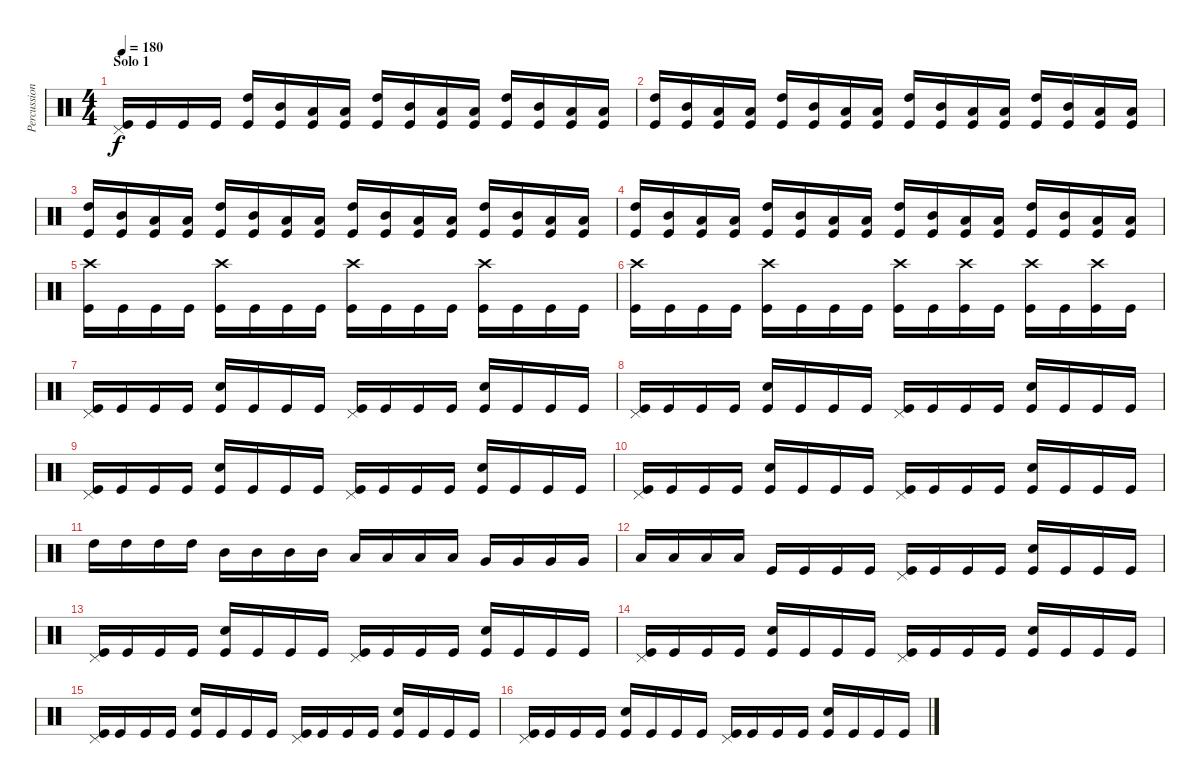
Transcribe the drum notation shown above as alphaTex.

\track ("Percussion" "Percussion") {instrument percussion}
\staff {score}
\articulation defaults
\ts (4 4)
\section ("" "Solo 1")
\tempo 180
\clef neutral
\ks c
("Pedal Hi-Hat (hit)" "Kick (hit)").16{dy f} "Kick (hit)".16 "Kick (hit)".16 "Kick (hit)".16 ("High Tom (hit)" "Kick (hit)").16 ("Mid Tom (hit)" "Kick (hit)").16 ("Low Tom (hit)" "Kick (hit)").16 ("Low Floor Tom (hit)" "Kick (hit)").16 ("High Tom (hit)" "Kick (hit)").16 ("Mid Tom (hit)" "Kick (hit)").16 ("Low Tom (hit)" "Kick (hit)").16 ("Low Floor Tom (hit)" "Kick (hit)").16 ("High Tom (hit)" "Kick (hit)").16 ("Mid Tom (hit)" "Kick (hit)").16 ("Low Tom (hit)" "Kick (hit)").16 ("Low Floor Tom (hit)" "Kick (hit)").16 |
("High Tom (hit)" "Kick (hit)").16 ("Mid Tom (hit)" "Kick (hit)").16 ("Low Tom (hit)" "Kick (hit)").16 ("Low Floor Tom (hit)" "Kick (hit)").16 ("High Tom (hit)" "Kick (hit)").16 ("Mid Tom (hit)" "Kick (hit)").16 ("Low Tom (hit)" "Kick (hit)").16 ("Low Floor Tom (hit)" "Kick (hit)").16 ("High Tom (hit)" "Kick (hit)").16 ("Mid Tom (hit)" "Kick (hit)").16 ("Low Tom (hit)" "Kick (hit)").16 ("Low Floor Tom (hit)" "Kick (hit)").16 ("High Tom (hit)" "Kick (hit)").16 ("Mid Tom (hit)" "Kick (hit)").16 ("Low Tom (hit)" "Kick (hit)").16 ("Low Floor Tom (hit)" "Kick (hit)").16 |
("High Tom (hit)" "Kick (hit)").16 ("Mid Tom (hit)" "Kick (hit)").16 ("Low Tom (hit)" "Kick (hit)").16 ("Low Floor Tom (hit)" "Kick (hit)").16 ("High Tom (hit)" "Kick (hit)").16 ("Mid Tom (hit)" "Kick (hit)").16 ("Low Tom (hit)" "Kick (hit)").16 ("Low Floor Tom (hit)" "Kick (hit)").16 ("High Tom (hit)" "Kick (hit)").16 ("Mid Tom (hit)" "Kick (hit)").16 ("Low Tom (hit)" "Kick (hit)").16 ("Low Floor Tom (hit)" "Kick (hit)").16 ("High Tom (hit)" "Kick (hit)").16 ("Mid Tom (hit)" "Kick (hit)").16 ("Low Tom (hit)" "Kick (hit)").16 ("Low Floor Tom (hit)" "Kick (hit)").16 |
("High Tom (hit)" "Kick (hit)").16 ("Mid Tom (hit)" "Kick (hit)").16 ("Low Tom (hit)" "Kick (hit)").16 ("Low Floor Tom (hit)" "Kick (hit)").16 ("High Tom (hit)" "Kick (hit)").16 ("Mid Tom (hit)" "Kick (hit)").16 ("Low Tom (hit)" "Kick (hit)").16 ("Low Floor Tom (hit)" "Kick (hit)").16 ("High Tom (hit)" "Kick (hit)").16 ("Mid Tom (hit)" "Kick (hit)").16 ("Low Tom (hit)" "Kick (hit)").16 ("Low Floor Tom (hit)" "Kick (hit)").16 ("High Tom (hit)" "Kick (hit)").16 ("Mid Tom (hit)" "Kick (hit)").16 ("Low Tom (hit)" "Kick (hit)").16 ("Low Floor Tom (hit)" "Kick (hit)").16 |
("Crash high (hit)" "Kick (hit)").16 "Kick (hit)".16 "Kick (hit)".16 "Kick (hit)".16 ("Crash high (hit)" "Kick (hit)").16 "Kick (hit)".16 "Kick (hit)".16 "Kick (hit)".16 ("Crash high (hit)" "Kick (hit)").16 "Kick (hit)".16 "Kick (hit)".16 "Kick (hit)".16 ("Crash high (hit)" "Kick (hit)").16 "Kick (hit)".16 "Kick (hit)".16 "Kick (hit)".16 |
("Crash high (hit)" "Kick (hit)").16 "Kick (hit)".16 "Kick (hit)".16 "Kick (hit)".16 ("Crash high (hit)" "Kick (hit)").16 "Kick (hit)".16 "Kick (hit)".16 "Kick (hit)".16 ("Crash high (hit)" "Kick (hit)").16 "Kick (hit)".16 ("Crash high (hit)" "Kick (hit)").16 "Kick (hit)".16 ("Crash high (hit)" "Kick (hit)").16 "Kick (hit)".16 ("Crash high (hit)" "Kick (hit)").16 "Kick (hit)".16 |
("Pedal Hi-Hat (hit)" "Kick (hit)").16 "Kick (hit)".16 "Kick (hit)".16 "Kick (hit)".16 ("Electric Snare (hit)" "Kick (hit)").16 "Kick (hit)".16 "Kick (hit)".16 "Kick (hit)".16 ("Pedal Hi-Hat (hit)" "Kick (hit)").16 "Kick (hit)".16 "Kick (hit)".16 "Kick (hit)".16 ("Electric Snare (hit)" "Kick (hit)").16 "Kick (hit)".16 "Kick (hit)".16 "Kick (hit)".16 |
("Pedal Hi-Hat (hit)" "Kick (hit)").16 "Kick (hit)".16 "Kick (hit)".16 "Kick (hit)".16 ("Electric Snare (hit)" "Kick (hit)").16 "Kick (hit)".16 "Kick (hit)".16 "Kick (hit)".16 ("Pedal Hi-Hat (hit)" "Kick (hit)").16 "Kick (hit)".16 "Kick (hit)".16 "Kick (hit)".16 ("Electric Snare (hit)" "Kick (hit)").16 "Kick (hit)".16 "Kick (hit)".16 "Kick (hit)".16 |
("Pedal Hi-Hat (hit)" "Kick (hit)").16 "Kick (hit)".16 "Kick (hit)".16 "Kick (hit)".16 ("Electric Snare (hit)" "Kick (hit)").16 "Kick (hit)".16 "Kick (hit)".16 "Kick (hit)".16 ("Pedal Hi-Hat (hit)" "Kick (hit)").16 "Kick (hit)".16 "Kick (hit)".16 "Kick (hit)".16 ("Electric Snare (hit)" "Kick (hit)").16 "Kick (hit)".16 "Kick (hit)".16 "Kick (hit)".16 |
("Pedal Hi-Hat (hit)" "Kick (hit)").16 "Kick (hit)".16 "Kick (hit)".16 "Kick (hit)".16 ("Electric Snare (hit)" "Kick (hit)").16 "Kick (hit)".16 "Kick (hit)".16 "Kick (hit)".16 ("Pedal Hi-Hat (hit)" "Kick (hit)").16 "Kick (hit)".16 "Kick (hit)".16 "Kick (hit)".16 ("Electric Snare (hit)" "Kick (hit)").16 "Kick (hit)".16 "Kick (hit)".16 "Kick (hit)".16 |
"High Tom (hit)".16 "High Tom (hit)".16 "High Tom (hit)".16 "High Tom (hit)".16 "Mid Tom (hit)".16 "Mid Tom (hit)".16 "Mid Tom (hit)".16 "Mid Tom (hit)".16 "Low Tom (hit)".16 "Low Tom (hit)".16 "Low Tom (hit)".16 "Low Tom (hit)".16 "Very Low Tom (hit)".16 "Very Low Tom (hit)".16 "Very Low Tom (hit)".16 "Very Low Tom (hit)".16 |
"Low Floor Tom (hit)".16 "Low Floor Tom (hit)".16 "Low Floor Tom (hit)".16 "Low Floor Tom (hit)".16 "Kick (hit)".16 "Kick (hit)".16 "Kick (hit)".16 "Kick (hit)".16 ("Kick (hit)" "Pedal Hi-Hat (hit)").16 "Kick (hit)".16 "Kick (hit)".16 "Kick (hit)".16 ("Kick (hit)" "Electric Snare (hit)").16 "Kick (hit)".16 "Kick (hit)".16 "Kick (hit)".16 |
("Pedal Hi-Hat (hit)" "Kick (hit)").16 "Kick (hit)".16 "Kick (hit)".16 "Kick (hit)".16 ("Electric Snare (hit)" "Kick (hit)").16 "Kick (hit)".16 "Kick (hit)".16 "Kick (hit)".16 ("Pedal Hi-Hat (hit)" "Kick (hit)").16 "Kick (hit)".16 "Kick (hit)".16 "Kick (hit)".16 ("Electric Snare (hit)" "Kick (hit)").16 "Kick (hit)".16 "Kick (hit)".16 "Kick (hit)".16 |
("Pedal Hi-Hat (hit)" "Kick (hit)").16 "Kick (hit)".16 "Kick (hit)".16 "Kick (hit)".16 ("Electric Snare (hit)" "Kick (hit)").16 "Kick (hit)".16 "Kick (hit)".16 "Kick (hit)".16 ("Pedal Hi-Hat (hit)" "Kick (hit)").16 "Kick (hit)".16 "Kick (hit)".16 "Kick (hit)".16 ("Electric Snare (hit)" "Kick (hit)").16 "Kick (hit)".16 "Kick (hit)".16 "Kick (hit)".16 |
("Pedal Hi-Hat (hit)" "Kick (hit)").16 "Kick (hit)".16 "Kick (hit)".16 "Kick (hit)".16 ("Electric Snare (hit)" "Kick (hit)").16 "Kick (hit)".16 "Kick (hit)".16 "Kick (hit)".16 ("Pedal Hi-Hat (hit)" "Kick (hit)").16 "Kick (hit)".16 "Kick (hit)".16 "Kick (hit)".16 ("Electric Snare (hit)" "Kick (hit)").16 "Kick (hit)".16 "Kick (hit)".16 "Kick (hit)".16 |
("Pedal Hi-Hat (hit)" "Kick (hit)").16 "Kick (hit)".16 "Kick (hit)".16 "Kick (hit)".16 ("Electric Snare (hit)" "Kick (hit)").16 "Kick (hit)".16 "Kick (hit)".16 "Kick (hit)".16 ("Pedal Hi-Hat (hit)" "Kick (hit)").16 "Kick (hit)".16 "Kick (hit)".16 "Kick (hit)".16 ("Electric Snare (hit)" "Kick (hit)").16 "Kick (hit)".16 "Kick (hit)".16 "Kick (hit)".16
